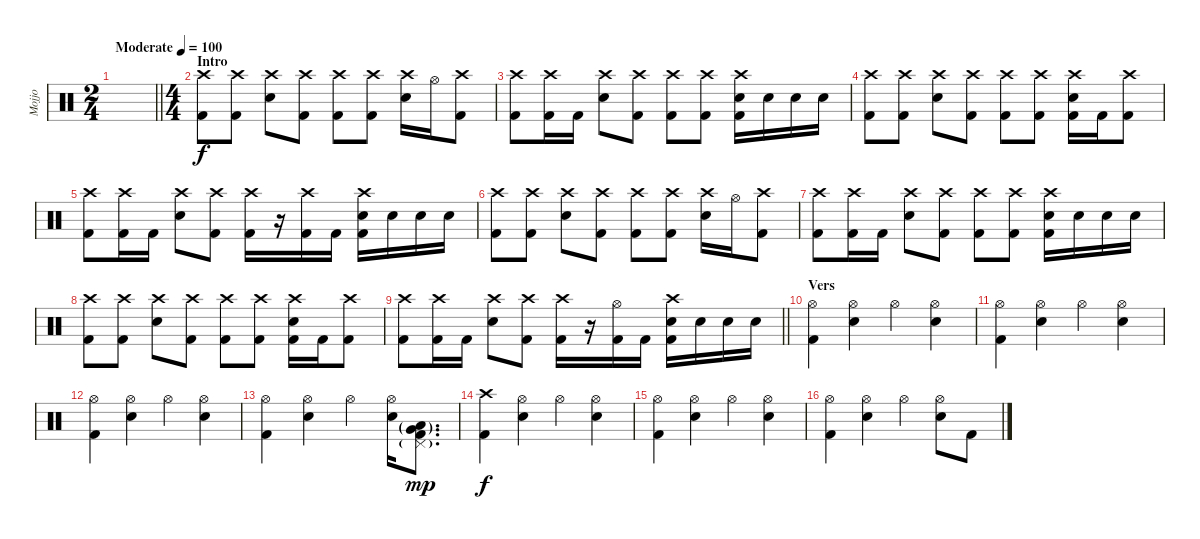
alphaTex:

\track ("Mojjo" "Mojjo") {instrument percussion}
\staff {score}
\articulation defaults
\ts (2 4)
\tempo (100 "Moderate")
\clef neutral
\barLineRight lightlight
\ks c
|
\ts (4 4)
\section ("" "Intro")
("Crash high (hit)" "Kick (hit) 2").8 ("Crash high (hit)" "Kick (hit) 2").8 ("Crash high (hit)" "Electric Snare (hit)").8 ("Crash high (hit)" "Kick (hit) 2").8 ("Crash high (hit)" "Kick (hit) 2").8 ("Crash high (hit)" "Kick (hit) 2").8 ("Crash high (hit)" "Electric Snare (hit)").16 "Hi-Hat (open)".16 ("Crash high (hit)" "Kick (hit) 2").8 |
("Crash high (hit)" "Kick (hit) 2").8 ("Crash high (hit)" "Kick (hit) 2").16 "Kick (hit) 2".16 ("Crash high (hit)" "Electric Snare (hit)").8 ("Crash high (hit)" "Kick (hit) 2").8 ("Crash high (hit)" "Kick (hit) 2").8 ("Crash high (hit)" "Kick (hit) 2").8 ("Crash high (hit)" "Electric Snare (hit)" "Kick (hit) 2").16 "Electric Snare (hit)".16 "Electric Snare (hit)".16 "Electric Snare (hit)".16 |
("Crash high (hit)" "Kick (hit) 2").8 ("Crash high (hit)" "Kick (hit) 2").8 ("Crash high (hit)" "Electric Snare (hit)").8 ("Crash high (hit)" "Kick (hit) 2").8 ("Crash high (hit)" "Kick (hit) 2").8 ("Crash high (hit)" "Kick (hit) 2").8 ("Crash high (hit)" "Electric Snare (hit)" "Kick (hit) 2").16 "Kick (hit) 2".16 ("Crash high (hit)" "Kick (hit) 2").8 |
("Crash high (hit)" "Kick (hit) 2").8 ("Crash high (hit)" "Kick (hit) 2").16 "Kick (hit) 2".16 ("Crash high (hit)" "Electric Snare (hit)").8 ("Crash high (hit)" "Kick (hit) 2").8 ("Crash high (hit)" "Kick (hit) 2").16 r.16 ("Crash high (hit)" "Kick (hit) 2").16 "Kick (hit) 2".16 ("Crash high (hit)" "Electric Snare (hit)" "Kick (hit) 2").16 "Electric Snare (hit)".16 "Electric Snare (hit)".16 "Electric Snare (hit)".16 |
("Crash high (hit)" "Kick (hit) 2").8 ("Crash high (hit)" "Kick (hit) 2").8 ("Crash high (hit)" "Electric Snare (hit)").8 ("Crash high (hit)" "Kick (hit) 2").8 ("Crash high (hit)" "Kick (hit) 2").8 ("Crash high (hit)" "Kick (hit) 2").8 ("Crash high (hit)" "Electric Snare (hit)").16 "Hi-Hat (open)".16 ("Crash high (hit)" "Kick (hit) 2").8 |
("Crash high (hit)" "Kick (hit) 2").8 ("Crash high (hit)" "Kick (hit) 2").16 "Kick (hit) 2".16 ("Crash high (hit)" "Electric Snare (hit)").8 ("Crash high (hit)" "Kick (hit) 2").8 ("Crash high (hit)" "Kick (hit) 2").8 ("Crash high (hit)" "Kick (hit) 2").8 ("Crash high (hit)" "Electric Snare (hit)" "Kick (hit) 2").16 "Electric Snare (hit)".16 "Electric Snare (hit)".16 "Electric Snare (hit)".16 |
("Crash high (hit)" "Kick (hit) 2").8 ("Crash high (hit)" "Kick (hit) 2").8 ("Crash high (hit)" "Electric Snare (hit)").8 ("Crash high (hit)" "Kick (hit) 2").8 ("Crash high (hit)" "Kick (hit) 2").8 ("Crash high (hit)" "Kick (hit) 2").8 ("Crash high (hit)" "Electric Snare (hit)" "Kick (hit) 2").16 "Kick (hit) 2".16 ("Crash high (hit)" "Kick (hit) 2").8 |
\barLineRight lightlight
("Crash high (hit)" "Kick (hit) 2").8 ("Crash high (hit)" "Kick (hit) 2").16 "Kick (hit) 2".16 ("Crash high (hit)" "Electric Snare (hit)").8 ("Crash high (hit)" "Kick (hit) 2").8 ("Crash high (hit)" "Kick (hit) 2").16 r.16 ("Hi-Hat (open)" "Kick (hit) 2").16 "Kick (hit) 2".16 ("Crash high (hit)" "Electric Snare (hit)" "Kick (hit) 2").16 "Electric Snare (hit)".16 "Electric Snare (hit)".16 "Electric Snare (hit)".16 |
\section ("" "Vers")
("Hi-Hat (open)" "Kick (hit) 2").4 ("Hi-Hat (open)" "Electric Snare (hit)").4 "Hi-Hat (open)".4 ("Hi-Hat (open)" "Electric Snare (hit)").4 |
("Hi-Hat (open)" "Kick (hit) 2").4 ("Hi-Hat (open)" "Electric Snare (hit)").4 "Hi-Hat (open)".4 ("Hi-Hat (open)" "Electric Snare (hit)").4 |
("Hi-Hat (open)" "Kick (hit) 2").4 ("Hi-Hat (open)" "Electric Snare (hit)").4 "Hi-Hat (open)".4 ("Hi-Hat (open)" "Electric Snare (hit)").4 |
("Hi-Hat (open)" "Kick (hit) 2").4 ("Hi-Hat (open)" "Electric Snare (hit)").4 "Hi-Hat (open)".4 ("Hi-Hat (open)" "Electric Snare (hit)").16 ("Very Low Tom (hit)"{g} "Low Floor Tom (hit)"{g} "Pedal Hi-Hat (hit)"{g} "Kick (hit) 2").8{d dy mp} |
("Crash high (hit)" "Kick (hit) 2").4{dy f} ("Hi-Hat (open)" "Electric Snare (hit)").4 "Hi-Hat (open)".4 ("Hi-Hat (open)" "Electric Snare (hit)").4 |
("Hi-Hat (open)" "Kick (hit) 2").4 ("Hi-Hat (open)" "Electric Snare (hit)").4 "Hi-Hat (open)".4 ("Hi-Hat (open)" "Electric Snare (hit)").4 |
("Hi-Hat (open)" "Kick (hit) 2").4 ("Hi-Hat (open)" "Electric Snare (hit)").4 "Hi-Hat (open)".4 ("Hi-Hat (open)" "Electric Snare (hit)").8 "Kick (hit) 2".8
